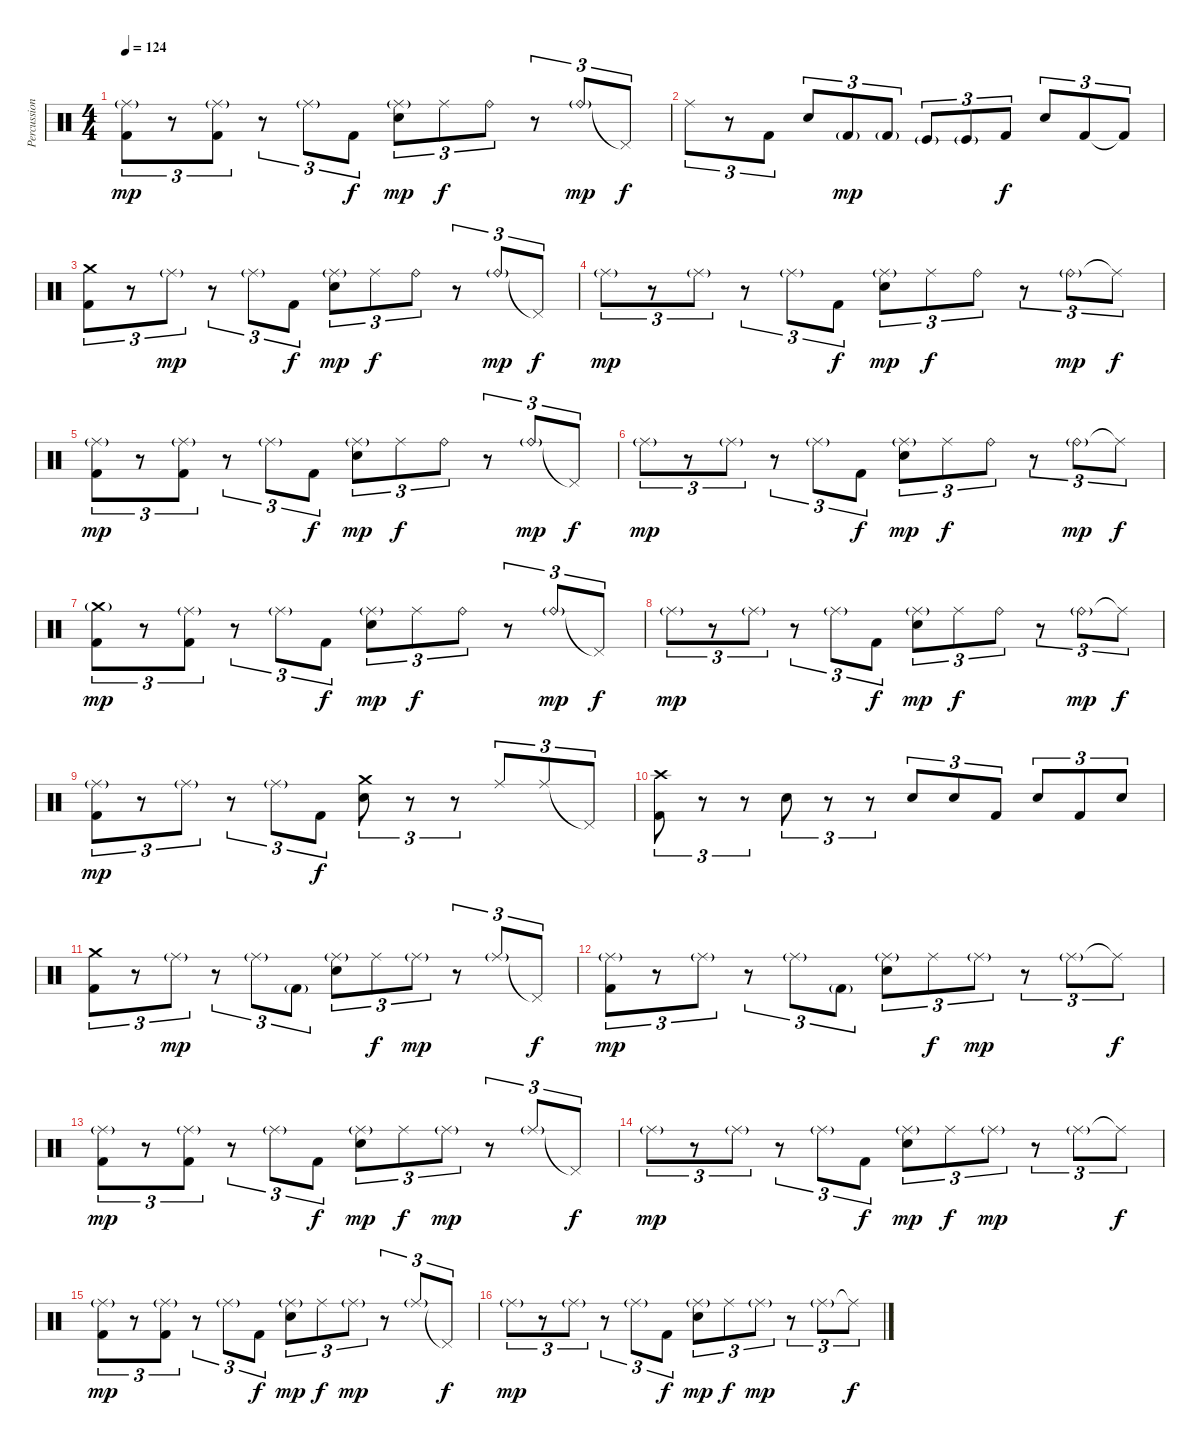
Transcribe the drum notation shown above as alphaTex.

\track ("Percussions" "Percussion") {instrument percussion}
\staff {score}
\articulation defaults
\ts (4 4)
\tempo 124
\clef neutral
\ks c
("Ride (middle)"{g} "Kick (hit) 2").8{tu (3 2) dy mp} r.8{tu (3 2)} ("Ride (middle)"{g} "Kick (hit) 2").8{tu (3 2)} r.8{tu (3 2)} "Ride (middle)"{g}.8{tu (3 2)} "Kick (hit) 2".8{tu (3 2) dy f} ("Ride (middle)"{g} "Electric Snare (hit)").8{tu (3 2) dy mp} "Ride (middle)".8{tu (3 2) dy f} "Ride (bell)".8{tu (3 2)} r.8{tu (3 2)} "Ride (bell)"{g}.8{tu (3 2) dy mp} "Pedal Hi-Hat (hit)"{t}.8{tu (3 2) dy f} |
"Ride (middle)".8{tu (3 2)} r.8{tu (3 2)} "Kick (hit) 2".8{tu (3 2)} "Electric Snare (hit)".8{tu (3 2)} "Kick (hit) 2"{g}.8{tu (3 2) dy mp} "Kick (hit) 2"{g}.8{tu (3 2)} "Kick (hit)"{g}.8{tu (3 2)} "Kick (hit)"{g}.8{tu (3 2)} "Kick (hit) 2".8{tu (3 2) dy f} "Electric Snare (hit)".8{tu (3 2)} "Kick (hit) 2".8{tu (3 2)} "Kick (hit) 2"{t}.8{tu (3 2)} |
("Crash medium (hit)" "Kick (hit) 2").8{tu (3 2)} r.8{tu (3 2)} "Ride (middle)"{g}.8{tu (3 2) dy mp} r.8{tu (3 2)} "Ride (middle)"{g}.8{tu (3 2)} "Kick (hit) 2".8{tu (3 2) dy f} ("Ride (middle)"{g} "Electric Snare (hit)").8{tu (3 2) dy mp} "Ride (middle)".8{tu (3 2) dy f} "Ride (bell)".8{tu (3 2)} r.8{tu (3 2)} "Ride (bell)"{g}.8{tu (3 2) dy mp} "Pedal Hi-Hat (hit)"{t}.8{tu (3 2) dy f} |
"Ride (middle)"{g}.8{tu (3 2) dy mp} r.8{tu (3 2)} "Ride (middle)"{g}.8{tu (3 2)} r.8{tu (3 2)} "Ride (middle)"{g}.8{tu (3 2)} "Kick (hit) 2".8{tu (3 2) dy f} ("Ride (middle)"{g} "Electric Snare (hit)").8{tu (3 2) dy mp} "Ride (middle)".8{tu (3 2) dy f} "Ride (bell)".8{tu (3 2)} r.8{tu (3 2)} "Ride (bell)"{g}.8{tu (3 2) dy mp} "Ride (middle)"{t}.8{tu (3 2) dy f} |
("Ride (middle)"{g} "Kick (hit) 2").8{tu (3 2) dy mp} r.8{tu (3 2)} ("Ride (middle)"{g} "Kick (hit) 2").8{tu (3 2)} r.8{tu (3 2)} "Ride (middle)"{g}.8{tu (3 2)} "Kick (hit) 2".8{tu (3 2) dy f} ("Ride (middle)"{g} "Electric Snare (hit)").8{tu (3 2) dy mp} "Ride (middle)".8{tu (3 2) dy f} "Ride (bell)".8{tu (3 2)} r.8{tu (3 2)} "Ride (bell)"{g}.8{tu (3 2) dy mp} "Pedal Hi-Hat (hit)"{t}.8{tu (3 2) dy f} |
"Ride (middle)"{g}.8{tu (3 2) dy mp} r.8{tu (3 2)} "Ride (middle)"{g}.8{tu (3 2)} r.8{tu (3 2)} "Ride (middle)"{g}.8{tu (3 2)} "Kick (hit) 2".8{tu (3 2) dy f} ("Ride (middle)"{g} "Electric Snare (hit)").8{tu (3 2) dy mp} "Ride (middle)".8{tu (3 2) dy f} "Ride (bell)".8{tu (3 2)} r.8{tu (3 2)} "Ride (bell)"{g}.8{tu (3 2) dy mp} "Ride (middle)"{t}.8{tu (3 2) dy f} |
("Crash medium (hit)"{g} "Kick (hit) 2").8{tu (3 2) dy mp} r.8{tu (3 2)} ("Ride (middle)"{g} "Kick (hit) 2").8{tu (3 2)} r.8{tu (3 2)} "Ride (middle)"{g}.8{tu (3 2)} "Kick (hit) 2".8{tu (3 2) dy f} ("Ride (middle)"{g} "Electric Snare (hit)").8{tu (3 2) dy mp} "Ride (middle)".8{tu (3 2) dy f} "Ride (bell)".8{tu (3 2)} r.8{tu (3 2)} "Ride (bell)"{g}.8{tu (3 2) dy mp} "Pedal Hi-Hat (hit)"{t}.8{tu (3 2) dy f} |
"Ride (middle)"{g}.8{tu (3 2) dy mp} r.8{tu (3 2)} "Ride (middle)"{g}.8{tu (3 2)} r.8{tu (3 2)} "Ride (middle)"{g}.8{tu (3 2)} "Kick (hit) 2".8{tu (3 2) dy f} ("Ride (middle)"{g} "Electric Snare (hit)").8{tu (3 2) dy mp} "Ride (middle)".8{tu (3 2) dy f} "Ride (bell)".8{tu (3 2)} r.8{tu (3 2)} "Ride (bell)"{g}.8{tu (3 2) dy mp} "Ride (middle)"{t}.8{tu (3 2) dy f} |
("Ride (middle)"{g} "Kick (hit) 2").8{tu (3 2) dy mp} r.8{tu (3 2)} "Ride (middle)"{g}.8{tu (3 2)} r.8{tu (3 2)} "Ride (middle)"{g}.8{tu (3 2)} "Kick (hit) 2".8{tu (3 2) dy f} ("Crash medium (hit)" "Electric Snare (hit)").8{tu (3 2)} r.8{tu (3 2)} r.8{tu (3 2)} "Ride (middle)".8{tu (3 2)} "Ride (middle)".8{tu (3 2)} "Pedal Hi-Hat (hit)"{t}.8{tu (3 2)} |
("Crash high (hit)" "Kick (hit) 2").8{tu (3 2)} r.8{tu (3 2)} r.8{tu (3 2)} "Electric Snare (hit)".8{tu (3 2)} r.8{tu (3 2)} r.8{tu (3 2)} "Electric Snare (hit)".8{tu (3 2)} "Electric Snare (hit)".8{tu (3 2)} "Kick (hit) 2".8{tu (3 2)} "Electric Snare (hit)".8{tu (3 2)} "Kick (hit) 2".8{tu (3 2)} "Electric Snare (hit)".8{tu (3 2)} |
("Crash medium (hit)" "Kick (hit) 2").8{tu (3 2)} r.8{tu (3 2)} "Ride (middle)"{g}.8{tu (3 2) dy mp} r.8{tu (3 2)} "Ride (middle)"{g}.8{tu (3 2)} "Kick (hit) 2"{g}.8{tu (3 2)} ("Ride (middle)"{g} "Electric Snare (hit)").8{tu (3 2)} "Ride (middle)".8{tu (3 2) dy f} "Ride (middle)"{g}.8{tu (3 2) dy mp} r.8{tu (3 2)} "Ride (middle)"{g}.8{tu (3 2)} "Pedal Hi-Hat (hit)"{t}.8{tu (3 2) dy f} |
("Ride (middle)"{g} "Kick (hit) 2").8{tu (3 2) dy mp} r.8{tu (3 2)} "Ride (middle)"{g}.8{tu (3 2)} r.8{tu (3 2)} "Ride (middle)"{g}.8{tu (3 2)} "Kick (hit) 2"{g}.8{tu (3 2)} ("Ride (middle)"{g} "Electric Snare (hit)").8{tu (3 2)} "Ride (middle)".8{tu (3 2) dy f} "Ride (middle)"{g}.8{tu (3 2) dy mp} r.8{tu (3 2)} "Ride (middle)"{g}.8{tu (3 2)} "Ride (middle)"{t}.8{tu (3 2) dy f} |
("Ride (middle)"{g} "Kick (hit) 2").8{tu (3 2) dy mp} r.8{tu (3 2)} ("Ride (middle)"{g} "Kick (hit) 2").8{tu (3 2)} r.8{tu (3 2)} "Ride (middle)"{g}.8{tu (3 2)} "Kick (hit) 2".8{tu (3 2) dy f} ("Ride (middle)"{g} "Electric Snare (hit)").8{tu (3 2) dy mp} "Ride (middle)".8{tu (3 2) dy f} "Ride (middle)"{g}.8{tu (3 2) dy mp} r.8{tu (3 2)} "Ride (middle)"{g}.8{tu (3 2)} "Pedal Hi-Hat (hit)"{t}.8{tu (3 2) dy f} |
"Ride (middle)"{g}.8{tu (3 2) dy mp} r.8{tu (3 2)} "Ride (middle)"{g}.8{tu (3 2)} r.8{tu (3 2)} "Ride (middle)"{g}.8{tu (3 2)} "Kick (hit) 2".8{tu (3 2) dy f} ("Ride (middle)"{g} "Electric Snare (hit)").8{tu (3 2) dy mp} "Ride (middle)".8{tu (3 2) dy f} "Ride (middle)"{g}.8{tu (3 2) dy mp} r.8{tu (3 2)} "Ride (middle)"{g}.8{tu (3 2)} "Ride (middle)"{t}.8{tu (3 2) dy f} |
("Ride (middle)"{g} "Kick (hit) 2").8{tu (3 2) dy mp} r.8{tu (3 2)} ("Ride (middle)"{g} "Kick (hit) 2").8{tu (3 2)} r.8{tu (3 2)} "Ride (middle)"{g}.8{tu (3 2)} "Kick (hit) 2".8{tu (3 2) dy f} ("Ride (middle)"{g} "Electric Snare (hit)").8{tu (3 2) dy mp} "Ride (middle)".8{tu (3 2) dy f} "Ride (middle)"{g}.8{tu (3 2) dy mp} r.8{tu (3 2)} "Ride (middle)"{g}.8{tu (3 2)} "Pedal Hi-Hat (hit)"{t}.8{tu (3 2) dy f} |
"Ride (middle)"{g}.8{tu (3 2) dy mp} r.8{tu (3 2)} "Ride (middle)"{g}.8{tu (3 2)} r.8{tu (3 2)} "Ride (middle)"{g}.8{tu (3 2)} "Kick (hit) 2".8{tu (3 2) dy f} ("Ride (middle)"{g} "Electric Snare (hit)").8{tu (3 2) dy mp} "Ride (middle)".8{tu (3 2) dy f} "Ride (middle)"{g}.8{tu (3 2) dy mp} r.8{tu (3 2)} "Ride (middle)"{g}.8{tu (3 2)} "Ride (middle)"{t}.8{tu (3 2) dy f}
